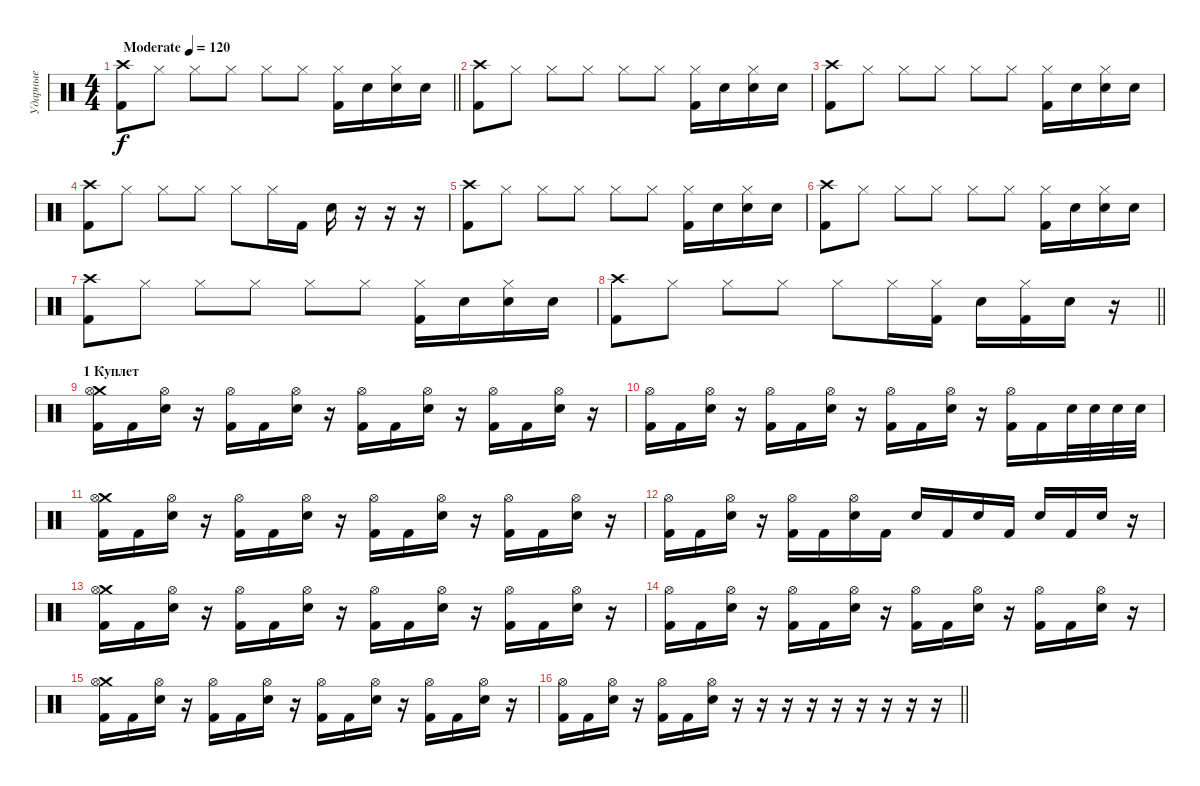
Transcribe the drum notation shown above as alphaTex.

\track ("Ударные" "Ударные") {instrument percussion}
\staff {score}
\articulation defaults
\ts (4 4)
\section ("" "")
\tempo (120 "Moderate")
\clef neutral
\barLineRight lightlight
\ks c
("Crash high (hit)" "Kick (hit) 2").8{dy f} "Hi-Hat (closed)".8 "Hi-Hat (closed)".8 "Hi-Hat (closed)".8 "Hi-Hat (closed)".8 "Hi-Hat (closed)".8 ("Hi-Hat (closed)" "Kick (hit) 2").16 "Electric Snare (hit)".16 ("Hi-Hat (closed)" "Electric Snare (hit)").16 "Electric Snare (hit)".16 |
\section ("" "")
("Crash high (hit)" "Kick (hit) 2").8 "Hi-Hat (closed)".8 "Hi-Hat (closed)".8 "Hi-Hat (closed)".8 "Hi-Hat (closed)".8 "Hi-Hat (closed)".8 ("Hi-Hat (closed)" "Kick (hit) 2").16 "Electric Snare (hit)".16 ("Hi-Hat (closed)" "Electric Snare (hit)").16 "Electric Snare (hit)".16 |
\section ("" "")
("Crash high (hit)" "Kick (hit) 2").8 "Hi-Hat (closed)".8 "Hi-Hat (closed)".8 "Hi-Hat (closed)".8 "Hi-Hat (closed)".8 "Hi-Hat (closed)".8 ("Hi-Hat (closed)" "Kick (hit) 2").16 "Electric Snare (hit)".16 ("Hi-Hat (closed)" "Electric Snare (hit)").16 "Electric Snare (hit)".16 |
\section ("" "")
("Crash high (hit)" "Kick (hit) 2").8 "Hi-Hat (closed)".8 "Hi-Hat (closed)".8 "Hi-Hat (closed)".8 "Hi-Hat (closed)".8 "Hi-Hat (closed)".16 "Kick (hit) 2".16 "Electric Snare (hit)".16 r.16 r.16 r.16 |
("Crash high (hit)" "Kick (hit) 2").8 "Hi-Hat (closed)".8 "Hi-Hat (closed)".8 "Hi-Hat (closed)".8 "Hi-Hat (closed)".8 "Hi-Hat (closed)".8 ("Hi-Hat (closed)" "Kick (hit) 2").16 "Electric Snare (hit)".16 ("Hi-Hat (closed)" "Electric Snare (hit)").16 "Electric Snare (hit)".16 |
("Crash high (hit)" "Kick (hit) 2").8 "Hi-Hat (closed)".8 "Hi-Hat (closed)".8 "Hi-Hat (closed)".8 "Hi-Hat (closed)".8 "Hi-Hat (closed)".8 ("Hi-Hat (closed)" "Kick (hit) 2").16 "Electric Snare (hit)".16 ("Hi-Hat (closed)" "Electric Snare (hit)").16 "Electric Snare (hit)".16 |
("Crash high (hit)" "Kick (hit) 2").8 "Hi-Hat (closed)".8 "Hi-Hat (closed)".8 "Hi-Hat (closed)".8 "Hi-Hat (closed)".8 "Hi-Hat (closed)".8 ("Hi-Hat (closed)" "Kick (hit) 2").16 "Electric Snare (hit)".16 ("Hi-Hat (closed)" "Electric Snare (hit)").16 "Electric Snare (hit)".16 |
\barLineRight lightlight
("Crash high (hit)" "Kick (hit) 2").8 "Hi-Hat (closed)".8 "Hi-Hat (closed)".8 "Hi-Hat (closed)".8 "Hi-Hat (closed)".8 "Hi-Hat (closed)".16 ("Hi-Hat (closed)" "Kick (hit) 2").16 "Electric Snare (hit)".16 ("Hi-Hat (closed)" "Kick (hit) 2").16 "Electric Snare (hit)".16 r.16 |
\section ("" "1 Куплет")
("Crash medium (hit)" "Hi-Hat (open)" "Kick (hit) 2").16 "Kick (hit) 2".16 ("Hi-Hat (open)" "Electric Snare (hit)").16 r.16 ("Hi-Hat (open)" "Kick (hit) 2").16 "Kick (hit) 2".16 ("Hi-Hat (open)" "Electric Snare (hit)").16 r.16 ("Hi-Hat (open)" "Kick (hit) 2").16 "Kick (hit) 2".16 ("Hi-Hat (open)" "Electric Snare (hit)").16 r.16 ("Hi-Hat (open)" "Kick (hit) 2").16 "Kick (hit) 2".16 ("Hi-Hat (open)" "Electric Snare (hit)").16 r.16 |
("Hi-Hat (open)" "Kick (hit) 2").16 "Kick (hit) 2".16 ("Hi-Hat (open)" "Electric Snare (hit)").16 r.16 ("Hi-Hat (open)" "Kick (hit) 2").16 "Kick (hit) 2".16 ("Hi-Hat (open)" "Electric Snare (hit)").16 r.16 ("Hi-Hat (open)" "Kick (hit) 2").16 "Kick (hit) 2".16 ("Hi-Hat (open)" "Electric Snare (hit)").16 r.16 ("Hi-Hat (open)" "Kick (hit) 2").16 "Kick (hit) 2".16 "Electric Snare (hit)".32 "Electric Snare (hit)".32 "Electric Snare (hit)".32 "Electric Snare (hit)".32 |
("Crash medium (hit)" "Hi-Hat (open)" "Kick (hit) 2").16 "Kick (hit) 2".16 ("Hi-Hat (open)" "Electric Snare (hit)").16 r.16 ("Hi-Hat (open)" "Kick (hit) 2").16 "Kick (hit) 2".16 ("Hi-Hat (open)" "Electric Snare (hit)").16 r.16 ("Hi-Hat (open)" "Kick (hit) 2").16 "Kick (hit) 2".16 ("Hi-Hat (open)" "Electric Snare (hit)").16 r.16 ("Hi-Hat (open)" "Kick (hit) 2").16 "Kick (hit) 2".16 ("Hi-Hat (open)" "Electric Snare (hit)").16 r.16 |
("Hi-Hat (open)" "Kick (hit) 2").16 "Kick (hit) 2".16 ("Hi-Hat (open)" "Electric Snare (hit)").16 r.16 ("Hi-Hat (open)" "Kick (hit) 2").16 "Kick (hit) 2".16 ("Hi-Hat (open)" "Electric Snare (hit)").16 "Kick (hit) 2".16 "Electric Snare (hit)".16 "Kick (hit) 2".16 "Electric Snare (hit)".16 "Kick (hit) 2".16 "Electric Snare (hit)".16 "Kick (hit) 2".16 "Electric Snare (hit)".16 r.16 |
("Crash medium (hit)" "Hi-Hat (open)" "Kick (hit) 2").16 "Kick (hit) 2".16 ("Hi-Hat (open)" "Electric Snare (hit)").16 r.16 ("Hi-Hat (open)" "Kick (hit) 2").16 "Kick (hit) 2".16 ("Hi-Hat (open)" "Electric Snare (hit)").16 r.16 ("Hi-Hat (open)" "Kick (hit) 2").16 "Kick (hit) 2".16 ("Hi-Hat (open)" "Electric Snare (hit)").16 r.16 ("Hi-Hat (open)" "Kick (hit) 2").16 "Kick (hit) 2".16 ("Hi-Hat (open)" "Electric Snare (hit)").16 r.16 |
("Hi-Hat (open)" "Kick (hit) 2").16 "Kick (hit) 2".16 ("Hi-Hat (open)" "Electric Snare (hit)").16 r.16 ("Hi-Hat (open)" "Kick (hit) 2").16 "Kick (hit) 2".16 ("Hi-Hat (open)" "Electric Snare (hit)").16 r.16 ("Hi-Hat (open)" "Kick (hit) 2").16 "Kick (hit) 2".16 ("Hi-Hat (open)" "Electric Snare (hit)").16 r.16 ("Hi-Hat (open)" "Kick (hit) 2").16 "Kick (hit) 2".16 ("Hi-Hat (open)" "Electric Snare (hit)").16 r.16 |
("Crash medium (hit)" "Hi-Hat (open)" "Kick (hit) 2").16 "Kick (hit) 2".16 ("Hi-Hat (open)" "Electric Snare (hit)").16 r.16 ("Hi-Hat (open)" "Kick (hit) 2").16 "Kick (hit) 2".16 ("Hi-Hat (open)" "Electric Snare (hit)").16 r.16 ("Hi-Hat (open)" "Kick (hit) 2").16 "Kick (hit) 2".16 ("Hi-Hat (open)" "Electric Snare (hit)").16 r.16 ("Hi-Hat (open)" "Kick (hit) 2").16 "Kick (hit) 2".16 ("Hi-Hat (open)" "Electric Snare (hit)").16 r.16 |
\barLineRight lightlight
("Hi-Hat (open)" "Kick (hit) 2").16 "Kick (hit) 2".16 ("Hi-Hat (open)" "Electric Snare (hit)").16 r.16 ("Hi-Hat (open)" "Kick (hit) 2").16 "Kick (hit) 2".16 ("Hi-Hat (open)" "Electric Snare (hit)").16 r.16 r.16 r.16 r.16 r.16 r.16 r.16 r.16 r.16
